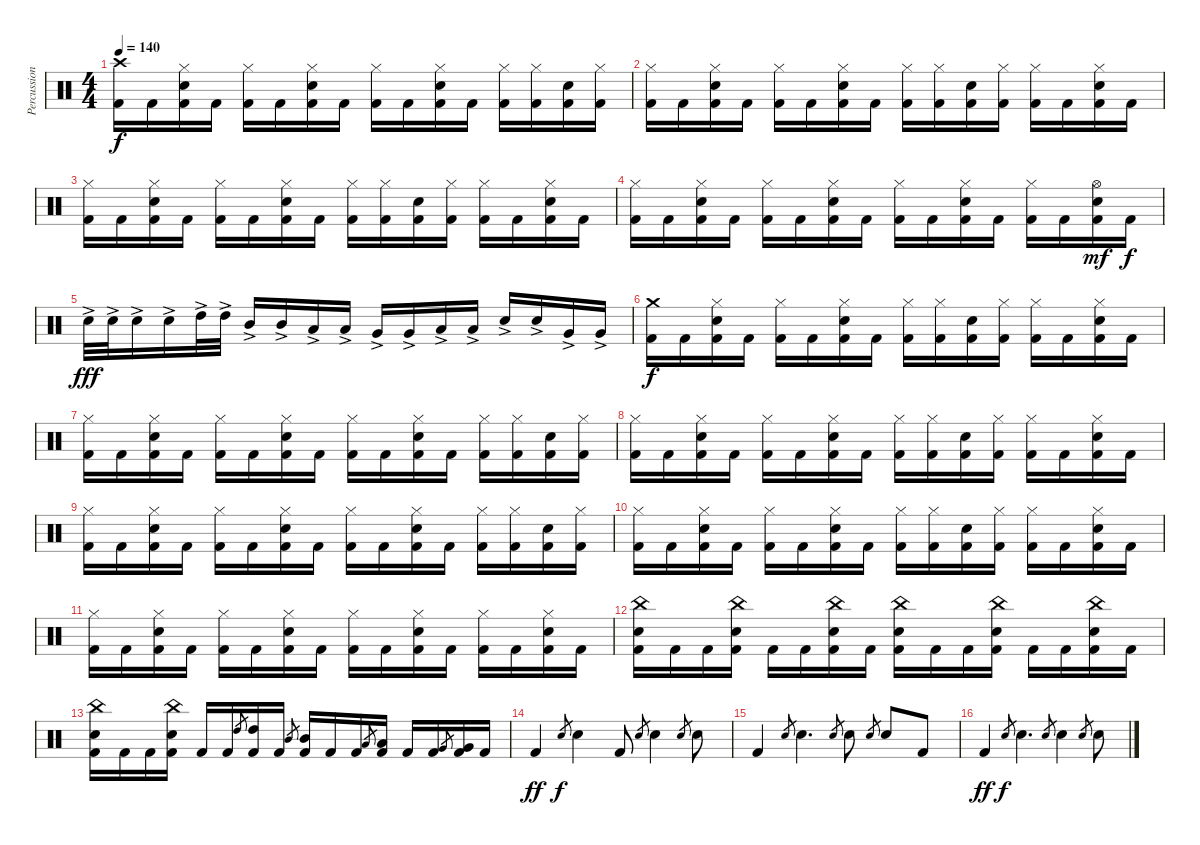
\track ("Percussion" "Percussion") {instrument percussion}
\staff {score}
\articulation defaults
\ts (4 4)
\tempo 140
\clef neutral
\ks c
("Crash high (hit)" "Kick (hit) 2").16{dy f} "Kick (hit) 2".16 ("Hi-Hat (closed)" "Electric Snare (hit)" "Kick (hit) 2").16 "Kick (hit) 2".16 ("Hi-Hat (closed)" "Kick (hit) 2").16 "Kick (hit) 2".16 ("Hi-Hat (closed)" "Electric Snare (hit)" "Kick (hit) 2").16 "Kick (hit) 2".16 ("Hi-Hat (closed)" "Kick (hit) 2").16 "Kick (hit) 2".16 ("Hi-Hat (closed)" "Electric Snare (hit)" "Kick (hit) 2").16 "Kick (hit) 2".16 ("Hi-Hat (closed)" "Kick (hit) 2").16 ("Hi-Hat (closed)" "Kick (hit) 2").16 ("Electric Snare (hit)" "Kick (hit) 2").16 ("Hi-Hat (closed)" "Kick (hit) 2").16 |
("Hi-Hat (closed)" "Kick (hit) 2").16 "Kick (hit) 2".16 ("Hi-Hat (closed)" "Electric Snare (hit)" "Kick (hit) 2").16 "Kick (hit) 2".16 ("Hi-Hat (closed)" "Kick (hit) 2").16 "Kick (hit) 2".16 ("Hi-Hat (closed)" "Electric Snare (hit)" "Kick (hit) 2").16 "Kick (hit) 2".16 ("Hi-Hat (closed)" "Kick (hit) 2").16 ("Hi-Hat (closed)" "Kick (hit) 2").16 ("Electric Snare (hit)" "Kick (hit) 2").16 ("Hi-Hat (closed)" "Kick (hit) 2").16 ("Hi-Hat (closed)" "Kick (hit) 2").16 "Kick (hit) 2".16 ("Hi-Hat (closed)" "Electric Snare (hit)" "Kick (hit) 2").16 "Kick (hit) 2".16 |
("Hi-Hat (closed)" "Kick (hit) 2").16 "Kick (hit) 2".16 ("Hi-Hat (closed)" "Electric Snare (hit)" "Kick (hit) 2").16 "Kick (hit) 2".16 ("Hi-Hat (closed)" "Kick (hit) 2").16 "Kick (hit) 2".16 ("Hi-Hat (closed)" "Electric Snare (hit)" "Kick (hit) 2").16 "Kick (hit) 2".16 ("Hi-Hat (closed)" "Kick (hit) 2").16 ("Hi-Hat (closed)" "Kick (hit) 2").16 ("Electric Snare (hit)" "Kick (hit) 2").16 ("Hi-Hat (closed)" "Kick (hit) 2").16 ("Hi-Hat (closed)" "Kick (hit) 2").16 "Kick (hit) 2".16 ("Hi-Hat (closed)" "Electric Snare (hit)" "Kick (hit) 2").16 "Kick (hit) 2".16 |
("Hi-Hat (closed)" "Kick (hit) 2").16 "Kick (hit) 2".16 ("Hi-Hat (closed)" "Electric Snare (hit)" "Kick (hit) 2").16 "Kick (hit) 2".16 ("Hi-Hat (closed)" "Kick (hit) 2").16 "Kick (hit) 2".16 ("Hi-Hat (closed)" "Electric Snare (hit)" "Kick (hit) 2").16 "Kick (hit) 2".16 ("Hi-Hat (closed)" "Kick (hit) 2").16 "Kick (hit) 2".16 ("Hi-Hat (closed)" "Electric Snare (hit)" "Kick (hit) 2").16 "Kick (hit) 2".16 ("Hi-Hat (closed)" "Kick (hit) 2").16 "Kick (hit) 2".16 ("Hi-Hat (open)" "Electric Snare (hit)" "Kick (hit) 2").16{dy mf} "Kick (hit) 2".16{dy f} |
"Electric Snare (hit)"{ac}.32{dy fff} "Electric Snare (hit)"{ac}.32 "Electric Snare (hit)"{ac}.16 "Electric Snare (hit)"{ac}.16 "High Tom (hit)"{ac}.32 "High Tom (hit)"{ac}.32 "Mid Tom (hit)"{ac}.16 "Mid Tom (hit)"{ac}.16 "Low Tom (hit)"{ac}.16 "Low Tom (hit)"{ac}.16 "Very Low Tom (hit)"{ac}.16 "Very Low Tom (hit)"{ac}.16 "Low Floor Tom (hit)"{ac}.16 "Low Floor Tom (hit)"{ac}.16 "Electric Snare (hit)"{ac}.16 "Electric Snare (hit)"{ac}.16 "Very Low Tom (hit)"{ac}.16 "Very Low Tom (hit)"{ac}.16 |
("Crash medium (hit)" "Kick (hit) 2").16{dy f} "Kick (hit) 2".16 ("Hi-Hat (closed)" "Electric Snare (hit)" "Kick (hit) 2").16 "Kick (hit) 2".16 ("Hi-Hat (closed)" "Kick (hit) 2").16 "Kick (hit) 2".16 ("Hi-Hat (closed)" "Electric Snare (hit)" "Kick (hit) 2").16 "Kick (hit) 2".16 ("Hi-Hat (closed)" "Kick (hit) 2").16 ("Hi-Hat (closed)" "Kick (hit) 2").16 ("Electric Snare (hit)" "Kick (hit) 2").16 ("Hi-Hat (closed)" "Kick (hit) 2").16 ("Hi-Hat (closed)" "Kick (hit) 2").16 "Kick (hit) 2".16 ("Hi-Hat (closed)" "Electric Snare (hit)" "Kick (hit) 2").16 "Kick (hit) 2".16 |
("Hi-Hat (closed)" "Kick (hit) 2").16 "Kick (hit) 2".16 ("Hi-Hat (closed)" "Electric Snare (hit)" "Kick (hit) 2").16 "Kick (hit) 2".16 ("Hi-Hat (closed)" "Kick (hit) 2").16 "Kick (hit) 2".16 ("Hi-Hat (closed)" "Electric Snare (hit)" "Kick (hit) 2").16 "Kick (hit) 2".16 ("Hi-Hat (closed)" "Kick (hit) 2").16 "Kick (hit) 2".16 ("Hi-Hat (closed)" "Electric Snare (hit)" "Kick (hit) 2").16 "Kick (hit) 2".16 ("Hi-Hat (closed)" "Kick (hit) 2").16 ("Hi-Hat (closed)" "Kick (hit) 2").16 ("Electric Snare (hit)" "Kick (hit) 2").16 ("Hi-Hat (closed)" "Kick (hit) 2").16 |
("Hi-Hat (closed)" "Kick (hit) 2").16 "Kick (hit) 2".16 ("Hi-Hat (closed)" "Electric Snare (hit)" "Kick (hit) 2").16 "Kick (hit) 2".16 ("Hi-Hat (closed)" "Kick (hit) 2").16 "Kick (hit) 2".16 ("Hi-Hat (closed)" "Electric Snare (hit)" "Kick (hit) 2").16 "Kick (hit) 2".16 ("Hi-Hat (closed)" "Kick (hit) 2").16 ("Hi-Hat (closed)" "Kick (hit) 2").16 ("Electric Snare (hit)" "Kick (hit) 2").16 ("Hi-Hat (closed)" "Kick (hit) 2").16 ("Hi-Hat (closed)" "Kick (hit) 2").16 "Kick (hit) 2".16 ("Hi-Hat (closed)" "Electric Snare (hit)" "Kick (hit) 2").16 "Kick (hit) 2".16 |
("Hi-Hat (closed)" "Kick (hit) 2").16 "Kick (hit) 2".16 ("Hi-Hat (closed)" "Electric Snare (hit)" "Kick (hit) 2").16 "Kick (hit) 2".16 ("Hi-Hat (closed)" "Kick (hit) 2").16 "Kick (hit) 2".16 ("Hi-Hat (closed)" "Electric Snare (hit)" "Kick (hit) 2").16 "Kick (hit) 2".16 ("Hi-Hat (closed)" "Kick (hit) 2").16 "Kick (hit) 2".16 ("Hi-Hat (closed)" "Electric Snare (hit)" "Kick (hit) 2").16 "Kick (hit) 2".16 ("Hi-Hat (closed)" "Kick (hit) 2").16 ("Hi-Hat (closed)" "Kick (hit) 2").16 ("Electric Snare (hit)" "Kick (hit) 2").16 ("Hi-Hat (closed)" "Kick (hit) 2").16 |
("Hi-Hat (closed)" "Kick (hit) 2").16 "Kick (hit) 2".16 ("Hi-Hat (closed)" "Electric Snare (hit)" "Kick (hit) 2").16 "Kick (hit) 2".16 ("Hi-Hat (closed)" "Kick (hit) 2").16 "Kick (hit) 2".16 ("Hi-Hat (closed)" "Electric Snare (hit)" "Kick (hit) 2").16 "Kick (hit) 2".16 ("Hi-Hat (closed)" "Kick (hit) 2").16 ("Hi-Hat (closed)" "Kick (hit) 2").16 ("Electric Snare (hit)" "Kick (hit) 2").16 ("Hi-Hat (closed)" "Kick (hit) 2").16 ("Hi-Hat (closed)" "Kick (hit) 2").16 "Kick (hit) 2".16 ("Hi-Hat (closed)" "Electric Snare (hit)" "Kick (hit) 2").16 "Kick (hit) 2".16 |
("Hi-Hat (closed)" "Kick (hit) 2").16 "Kick (hit) 2".16 ("Hi-Hat (closed)" "Electric Snare (hit)" "Kick (hit) 2").16 "Kick (hit) 2".16 ("Hi-Hat (closed)" "Kick (hit) 2").16 "Kick (hit) 2".16 ("Hi-Hat (closed)" "Electric Snare (hit)" "Kick (hit) 2").16 "Kick (hit) 2".16 ("Hi-Hat (closed)" "Kick (hit) 2").16 "Kick (hit) 2".16 ("Hi-Hat (closed)" "Electric Snare (hit)" "Kick (hit) 2").16 "Kick (hit) 2".16 ("Hi-Hat (closed)" "Kick (hit) 2").16 "Kick (hit) 2".16 ("Hi-Hat (closed)" "Electric Snare (hit)" "Kick (hit) 2").16 "Kick (hit) 2".16 |
("China (hit)" "Electric Snare (hit)" "Kick (hit) 2").16 "Kick (hit) 2".16 "Kick (hit) 2".16 ("China (hit)" "Electric Snare (hit)" "Kick (hit) 2").16 "Kick (hit) 2".16 "Kick (hit) 2".16 ("China (hit)" "Electric Snare (hit)" "Kick (hit) 2").16 "Kick (hit) 2".16 ("China (hit)" "Electric Snare (hit)" "Kick (hit) 2").16 "Kick (hit) 2".16 "Kick (hit) 2".16 ("China (hit)" "Electric Snare (hit)" "Kick (hit) 2").16 "Kick (hit) 2".16 "Kick (hit) 2".16 ("China (hit)" "Electric Snare (hit)" "Kick (hit) 2").16 "Kick (hit) 2".16 |
("China (hit)" "Electric Snare (hit)" "Kick (hit) 2").16 "Kick (hit) 2".16 "Kick (hit) 2".16 ("China (hit)" "Electric Snare (hit)" "Kick (hit) 2").16 "Kick (hit) 2".16 "Kick (hit) 2".16 "High Tom (hit)".8{gr} ("High Tom (hit)" "Kick (hit) 2").16 "Kick (hit) 2".16 "Mid Tom (hit)".8{gr} ("Mid Tom (hit)" "Kick (hit) 2").16 "Kick (hit) 2".16 "Kick (hit) 2".16 "Low Tom (hit)".8{gr} ("Low Tom (hit)" "Kick (hit) 2").16 "Kick (hit) 2".16 "Kick (hit) 2".16 "Very Low Tom (hit)".8{gr} ("Very Low Tom (hit)" "Kick (hit) 2").16 "Kick (hit) 2".16 |
"Kick (hit) 2".4{dy ff} "Electric Snare (hit)".8{gr dy f} "Electric Snare (hit)".4 "Kick (hit) 2".8 "Electric Snare (hit)".8{gr} "Electric Snare (hit)".4 "Electric Snare (hit)".8{gr} "Electric Snare (hit)".8 |
"Kick (hit) 2".4 "Electric Snare (hit)".8{gr} "Electric Snare (hit)".4{d} "Electric Snare (hit)".8{gr} "Electric Snare (hit)".8 "Electric Snare (hit)".8{gr} "Electric Snare (hit)".8 "Kick (hit) 2".8 |
"Kick (hit) 2".4{dy ff} "Electric Snare (hit)".8{gr dy f} "Electric Snare (hit)".4{d} "Electric Snare (hit)".8{gr} "Electric Snare (hit)".4 "Electric Snare (hit)".8{gr} "Electric Snare (hit)".8
